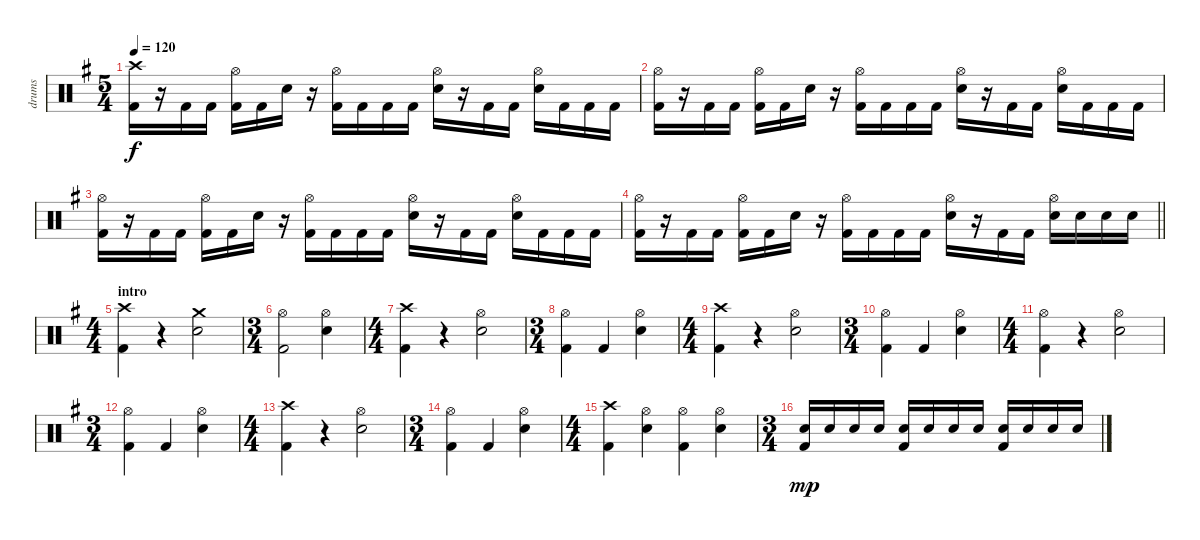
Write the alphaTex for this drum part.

\track ("drums" "drums") {instrument percussion}
\staff {score}
\articulation defaults
\ts (5 4)
\tempo 120
\clef neutral
\ks eminor
("Crash high (hit)" "Kick (hit) 2").16{dy f} r.16 "Kick (hit) 2".16 "Kick (hit) 2".16 ("Hi-Hat (open)" "Kick (hit) 2").16 "Kick (hit) 2".16 "Snare (hit) 2".16 r.16 ("Hi-Hat (open)" "Kick (hit) 2").16 "Kick (hit) 2".16 "Kick (hit) 2".16 "Kick (hit) 2".16 ("Hi-Hat (open)" "Snare (hit) 2").16 r.16 "Kick (hit) 2".16 "Kick (hit) 2".16 ("Hi-Hat (open)" "Snare (hit) 2").16 "Kick (hit) 2".16 "Kick (hit) 2".16 "Kick (hit) 2".16 |
("Hi-Hat (open)" "Kick (hit) 2").16 r.16 "Kick (hit) 2".16 "Kick (hit) 2".16 ("Hi-Hat (open)" "Kick (hit) 2").16 "Kick (hit) 2".16 "Snare (hit) 2".16 r.16 ("Hi-Hat (open)" "Kick (hit) 2").16 "Kick (hit) 2".16 "Kick (hit) 2".16 "Kick (hit) 2".16 ("Hi-Hat (open)" "Snare (hit) 2").16 r.16 "Kick (hit) 2".16 "Kick (hit) 2".16 ("Hi-Hat (open)" "Snare (hit) 2").16 "Kick (hit) 2".16 "Kick (hit) 2".16 "Kick (hit) 2".16 |
("Hi-Hat (open)" "Kick (hit) 2").16 r.16 "Kick (hit) 2".16 "Kick (hit) 2".16 ("Hi-Hat (open)" "Kick (hit) 2").16 "Kick (hit) 2".16 "Snare (hit) 2".16 r.16 ("Hi-Hat (open)" "Kick (hit) 2").16 "Kick (hit) 2".16 "Kick (hit) 2".16 "Kick (hit) 2".16 ("Hi-Hat (open)" "Snare (hit) 2").16 r.16 "Kick (hit) 2".16 "Kick (hit) 2".16 ("Hi-Hat (open)" "Snare (hit) 2").16 "Kick (hit) 2".16 "Kick (hit) 2".16 "Kick (hit) 2".16 |
\barLineRight lightlight
("Hi-Hat (open)" "Kick (hit) 2").16 r.16 "Kick (hit) 2".16 "Kick (hit) 2".16 ("Hi-Hat (open)" "Kick (hit) 2").16 "Kick (hit) 2".16 "Snare (hit) 2".16 r.16 ("Hi-Hat (open)" "Kick (hit) 2").16 "Kick (hit) 2".16 "Kick (hit) 2".16 "Kick (hit) 2".16 ("Hi-Hat (open)" "Snare (hit) 2").16 r.16 "Kick (hit) 2".16 "Kick (hit) 2".16 ("Hi-Hat (open)" "Snare (hit) 2").16 "Snare (hit) 2".16 "Snare (hit) 2".16 "Snare (hit) 2".16 |
\ts (4 4)
\section ("" "intro")
\ks g
("Crash high (hit)" "Kick (hit) 2").4 r.4 ("Crash medium (hit)" "Snare (hit) 2").2 |
\ts (3 4)
("Hi-Hat (open)" "Kick (hit) 2").2 ("Hi-Hat (open)" "Snare (hit) 2").4 |
\ts (4 4)
("Crash high (hit)" "Kick (hit) 2").4 r.4 ("Hi-Hat (open)" "Snare (hit) 2").2 |
\ts (3 4)
("Hi-Hat (open)" "Kick (hit) 2").4 "Kick (hit) 2".4 ("Hi-Hat (open)" "Snare (hit) 2").4 |
\ts (4 4)
("Crash high (hit)" "Kick (hit) 2").4 r.4 ("Hi-Hat (open)" "Snare (hit) 2").2 |
\ts (3 4)
("Hi-Hat (open)" "Kick (hit) 2").4 "Kick (hit) 2".4 ("Hi-Hat (open)" "Snare (hit) 2").4 |
\ts (4 4)
("Hi-Hat (open)" "Kick (hit) 2").4 r.4 ("Hi-Hat (open)" "Snare (hit) 2").2 |
\ts (3 4)
("Hi-Hat (open)" "Kick (hit) 2").4 "Kick (hit) 2".4 ("Hi-Hat (open)" "Snare (hit) 2").4 |
\ts (4 4)
("Crash high (hit)" "Kick (hit) 2").4 r.4 ("Hi-Hat (open)" "Snare (hit) 2").2 |
\ts (3 4)
("Hi-Hat (open)" "Kick (hit) 2").4 "Kick (hit) 2".4 ("Hi-Hat (open)" "Snare (hit) 2").4 |
\ts (4 4)
("Crash high (hit)" "Kick (hit) 2").4 ("Hi-Hat (open)" "Snare (hit) 2").4 ("Hi-Hat (open)" "Kick (hit) 2").4 ("Hi-Hat (open)" "Snare (hit) 2").4 |
\ts (3 4)
("Snare (hit) 2" "Kick (hit) 2").16{dy mp} "Snare (hit) 2".16 "Snare (hit) 2".16 "Snare (hit) 2".16 ("Snare (hit) 2" "Kick (hit) 2").16 "Snare (hit) 2".16 "Snare (hit) 2".16 "Snare (hit) 2".16 ("Snare (hit) 2" "Kick (hit) 2").16 "Snare (hit) 2".16 "Snare (hit) 2".16 "Snare (hit) 2".16
